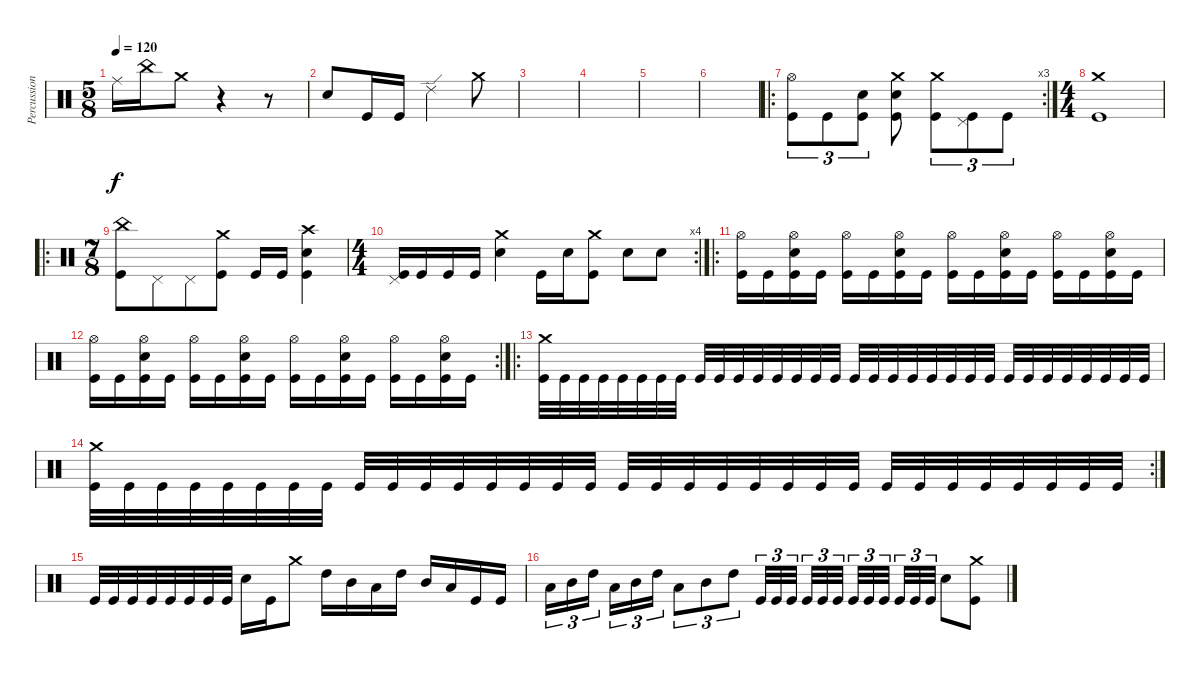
\track ("Percussion" "Percussion") {instrument percussion}
\staff {score}
\articulation defaults
\ts (5 8)
\tempo 120
\clef neutral
\ks c "Ride (middle)".16{dy f} "China (hit)".16 "Crash medium (hit)".8
r.4 r.8 |
"Snare (hit) 2".8 "Kick (hit)".16 "Kick (hit)".16 "Ride (edge) 2".4 "Crash medium (hit)".8 |
|
|
|
|
\ro
\rc 3
("Hi-Hat (open)" "Kick (hit)").8{tu (3 2)} "Kick (hit)".8{tu (3 2)} ("Snare (hit) 2" "Kick (hit)").8{tu (3 2)} ("Crash medium (hit)" "Snare (hit) 2" "Kick (hit)").8 ("Crash medium (hit)" "Kick (hit)").8{tu (3 2)} ("Pedal Hi-Hat (hit)" "Kick (hit)").8{tu (3 2)} "Kick (hit)".8{tu (3 2)} |
\ts (4 4)
("Crash medium (hit)" "Kick (hit)").1 |
\ro
\ts (7 8)
("China (hit)" "Kick (hit)").8 "Pedal Hi-Hat (hit)".8 "Pedal Hi-Hat (hit)".8 ("Crash medium (hit)" "Kick (hit)").8 "Kick (hit)".16 "Kick (hit)".16 ("Crash high (hit)" "Snare (hit) 2" "Kick (hit)").4 |
\rc 4
\ts (4 4)
("Pedal Hi-Hat (hit)" "Kick (hit)").16 "Kick (hit)".16 "Kick (hit)".16 "Kick (hit)".16 ("Crash medium (hit)" "Snare (hit) 2").4 "Kick (hit)".16 "Snare (hit) 2".16 ("Crash medium (hit)" "Kick (hit)").8 "Snare (hit) 2".8 "Snare (hit) 2".8 |
\ro
("Hi-Hat (open)" "Kick (hit)").16 "Kick (hit)".16 ("Hi-Hat (open)" "Snare (hit) 2" "Kick (hit)").16 "Kick (hit)".16 ("Hi-Hat (open)" "Kick (hit)").16 "Kick (hit)".16 ("Hi-Hat (open)" "Snare (hit) 2" "Kick (hit)").16 "Kick (hit)".16 ("Hi-Hat (open)" "Kick (hit)").16 "Kick (hit)".16 ("Hi-Hat (open)" "Snare (hit) 2" "Kick (hit)").16 "Kick (hit)".16 ("Hi-Hat (open)" "Kick (hit)").16 "Kick (hit)".16 ("Hi-Hat (open)" "Snare (hit) 2" "Kick (hit)").16 "Kick (hit)".16 |
\rc 2
("Hi-Hat (open)" "Kick (hit)").16 "Kick (hit)".16 ("Hi-Hat (open)" "Snare (hit) 2" "Kick (hit)").16 "Kick (hit)".16 ("Hi-Hat (open)" "Kick (hit)").16 "Kick (hit)".16 ("Hi-Hat (open)" "Snare (hit) 2" "Kick (hit)").16 "Kick (hit)".16 ("Hi-Hat (open)" "Kick (hit)").16 "Kick (hit)".16 ("Hi-Hat (open)" "Snare (hit) 2" "Kick (hit)").16 "Kick (hit)".16 ("Hi-Hat (open)" "Kick (hit)").16 "Kick (hit)".16 ("Hi-Hat (open)" "Snare (hit) 2" "Kick (hit)").16 "Kick (hit)".16 |
\ro
("Crash medium (hit)" "Kick (hit)").32 "Kick (hit)".32 "Kick (hit)".32 "Kick (hit)".32 "Kick (hit)".32 "Kick (hit)".32 "Kick (hit)".32 "Kick (hit)".32 "Kick (hit)".32 "Kick (hit)".32 "Kick (hit)".32 "Kick (hit)".32 "Kick (hit)".32 "Kick (hit)".32 "Kick (hit)".32 "Kick (hit)".32 "Kick (hit)".32 "Kick (hit)".32 "Kick (hit)".32 "Kick (hit)".32 "Kick (hit)".32 "Kick (hit)".32 "Kick (hit)".32 "Kick (hit)".32 "Kick (hit)".32 "Kick (hit)".32 "Kick (hit)".32 "Kick (hit)".32 "Kick (hit)".32 "Kick (hit)".32 "Kick (hit)".32 "Kick (hit)".32 |
\rc 2
("Crash medium (hit)" "Kick (hit)").32 "Kick (hit)".32 "Kick (hit)".32 "Kick (hit)".32 "Kick (hit)".32 "Kick (hit)".32 "Kick (hit)".32 "Kick (hit)".32 "Kick (hit)".32 "Kick (hit)".32 "Kick (hit)".32 "Kick (hit)".32 "Kick (hit)".32 "Kick (hit)".32 "Kick (hit)".32 "Kick (hit)".32 "Kick (hit)".32 "Kick (hit)".32 "Kick (hit)".32 "Kick (hit)".32 "Kick (hit)".32 "Kick (hit)".32 "Kick (hit)".32 "Kick (hit)".32 "Kick (hit)".32 "Kick (hit)".32 "Kick (hit)".32 "Kick (hit)".32 "Kick (hit)".32 "Kick (hit)".32 "Kick (hit)".32 "Kick (hit)".32 |
"Kick (hit)".32 "Kick (hit)".32 "Kick (hit)".32 "Kick (hit)".32 "Kick (hit)".32 "Kick (hit)".32 "Kick (hit)".32 "Kick (hit)".32 "Snare (hit) 2".16 "Kick (hit)".16 "Crash medium (hit)".8 "High Tom (hit)".16 "Mid Tom (hit)".16 "Low Tom (hit)".16 "High Tom (hit)".16 "Mid Tom (hit)".16 "Low Tom (hit)".16 "Kick (hit)".16 "Kick (hit)".16 |
"Low Tom (hit)".16{tu (3 2)} "Mid Tom (hit)".16{tu (3 2)} "High Tom (hit)".16{tu (3 2)} "Low Tom (hit)".16{tu (3 2)} "Mid Tom (hit)".16{tu (3 2)} "High Tom (hit)".16{tu (3 2)} "Low Tom (hit)".8{tu (3 2)} "Mid Tom (hit)".8{tu (3 2)} "High Tom (hit)".8{tu (3 2)} "Kick (hit)".32{tu (3 2)} "Kick (hit)".32{tu (3 2)} "Kick (hit)".32{tu (3 2)} "Kick (hit)".32{tu (3 2)} "Kick (hit)".32{tu (3 2)} "Kick (hit)".32{tu (3 2)} "Kick (hit)".32{tu (3 2)} "Kick (hit)".32{tu (3 2)} "Kick (hit)".32{tu (3 2)} "Kick (hit)".32{tu (3 2)} "Kick (hit)".32{tu (3 2)} "Kick (hit)".32{tu (3 2)} "Snare (hit) 2".8 ("Crash medium (hit)" "Kick (hit)").8
